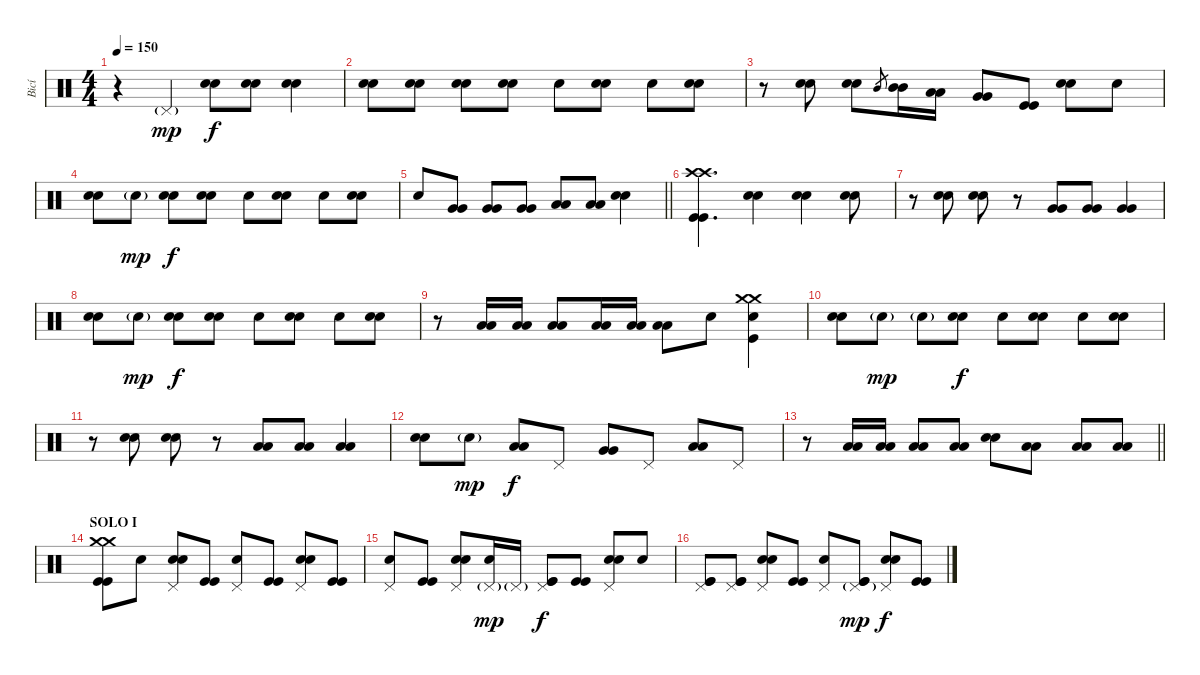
\track ("Bicí" "Bicí") {instrument percussion}
\staff {score}
\articulation defaults
\ts (4 4)
\tempo 150
\clef neutral
\ks c
r.4{dy f} "Pedal Hi-Hat (hit)"{g}.4{dy mp} ("Electric Snare (hit)" "Electric Snare (hit)").8{dy f} ("Electric Snare (hit)" "Electric Snare (hit)").8 ("Electric Snare (hit)" "Electric Snare (hit)").4 |
("Electric Snare (hit)" "Electric Snare (hit)").8 ("Electric Snare (hit)" "Electric Snare (hit)").8 ("Electric Snare (hit)" "Electric Snare (hit)").8 ("Electric Snare (hit)" "Electric Snare (hit)").8 "Snare (hit)".8 ("Electric Snare (hit)" "Electric Snare (hit)").8 "Snare (hit)".8 ("Electric Snare (hit)" "Electric Snare (hit)").8 |
r.8 ("Electric Snare (hit)" "Electric Snare (hit)").8 ("Electric Snare (hit)" "Electric Snare (hit)").8 "Mid Tom (hit)".8{gr} ("Mid Tom (hit)" "Mid Tom (hit)").16 ("Low Tom (hit)" "Low Tom (hit)").16 ("Very Low Tom (hit)" "Very Low Tom (hit)").8 ("Kick (hit)" "Kick (hit)").8 ("Electric Snare (hit)" "Electric Snare (hit)").8 "Snare (hit)".8 |
("Electric Snare (hit)" "Electric Snare (hit)").8 "Electric Snare (hit)"{g}.8{dy mp} ("Electric Snare (hit)" "Electric Snare (hit)").8{dy f} ("Electric Snare (hit)" "Electric Snare (hit)").8 "Snare (hit)".8 ("Electric Snare (hit)" "Electric Snare (hit)").8 "Snare (hit)".8 ("Electric Snare (hit)" "Electric Snare (hit)").8 |
\barLineRight lightlight "Snare (hit)".8
("Very Low Tom (hit)" "Very Low Tom (hit)").8 ("Very Low Tom (hit)" "Very Low Tom (hit)").8 ("Very Low Tom (hit)" "Very Low Tom (hit)").8 ("Low Floor Tom (hit)" "Low Floor Tom (hit)").8 ("Low Floor Tom (hit)" "Low Floor Tom (hit)").8 ("Electric Snare (hit)" "Electric Snare (hit)").4 |
\section ("" "")
("Crash high (hit)" "Crash high (hit)" "Kick (hit)" "Kick (hit)").4{d} ("Electric Snare (hit)" "Electric Snare (hit)").4 ("Electric Snare (hit)" "Electric Snare (hit)").4 ("Electric Snare (hit)" "Electric Snare (hit)").8 |
r.8 ("Electric Snare (hit)" "Electric Snare (hit)").8 ("Electric Snare (hit)" "Electric Snare (hit)").8 r.8 ("Very Low Tom (hit)" "Very Low Tom (hit)").8 ("Very Low Tom (hit)" "Very Low Tom (hit)").8 ("Very Low Tom (hit)" "Very Low Tom (hit)").4 |
("Electric Snare (hit)" "Electric Snare (hit)").8 "Electric Snare (hit)"{g}.8{dy mp} ("Electric Snare (hit)" "Electric Snare (hit)").8{dy f} ("Electric Snare (hit)" "Electric Snare (hit)").8 "Snare (hit)".8 ("Electric Snare (hit)" "Electric Snare (hit)").8 "Snare (hit)".8 ("Electric Snare (hit)" "Electric Snare (hit)").8 |
r.8 ("Low Tom (hit)" "Low Tom (hit)").16 ("Low Tom (hit)" "Low Tom (hit)").16 ("Low Tom (hit)" "Low Tom (hit)").8 ("Low Tom (hit)" "Low Tom (hit)").16 ("Low Tom (hit)" "Low Tom (hit)").16 ("Low Tom (hit)" "Low Tom (hit)").8 "Snare (hit)".8 ("Crash medium (hit)" "Crash medium (hit)" "Electric Snare (hit)" "Kick (hit)").4 |
("Electric Snare (hit)" "Electric Snare (hit)").8 "Electric Snare (hit)"{g}.8{dy mp} "Electric Snare (hit)"{g}.8 ("Electric Snare (hit)" "Electric Snare (hit)").8{dy f} "Snare (hit)".8 ("Electric Snare (hit)" "Electric Snare (hit)").8 "Snare (hit)".8 ("Electric Snare (hit)" "Electric Snare (hit)").8 |
r.8 ("Electric Snare (hit)" "Electric Snare (hit)").8 ("Electric Snare (hit)" "Electric Snare (hit)").8 r.8 ("Low Tom (hit)" "Low Tom (hit)").8 ("Low Tom (hit)" "Low Tom (hit)").8 ("Low Tom (hit)" "Low Tom (hit)").4 |
("Electric Snare (hit)" "Electric Snare (hit)").8 "Electric Snare (hit)"{g}.8{dy mp} ("Low Tom (hit)" "Low Tom (hit)").8{dy f} "Pedal Hi-Hat (hit)".8 ("Very Low Tom (hit)" "Very Low Tom (hit)").8 "Pedal Hi-Hat (hit)".8 ("Low Floor Tom (hit)" "Low Floor Tom (hit)").8 "Pedal Hi-Hat (hit)".8 |
\barLineRight lightlight
r.8 ("Low Tom (hit)" "Low Tom (hit)").16 ("Low Tom (hit)" "Low Tom (hit)").16 ("Low Tom (hit)" "Low Tom (hit)").8 ("Low Tom (hit)" "Low Tom (hit)").8 ("Electric Snare (hit)" "Electric Snare (hit)").8 ("Low Floor Tom (hit)" "Low Floor Tom (hit)").8 ("Low Floor Tom (hit)" "Low Floor Tom (hit)").8 ("Low Floor Tom (hit)" "Low Floor Tom (hit)").8 |
\section ("" "SOLO I")
("Crash medium (hit)" "Crash medium (hit)" "Kick (hit)" "Kick (hit)").8 "Snare (hit)".8 ("Pedal Hi-Hat (hit)" "Electric Snare (hit)" "Electric Snare (hit)").8 ("Kick (hit)" "Kick (hit)").8 ("Pedal Hi-Hat (hit)" "Snare (hit)").8 ("Kick (hit)" "Kick (hit)").8 ("Pedal Hi-Hat (hit)" "Electric Snare (hit)" "Electric Snare (hit)").8 ("Kick (hit)" "Kick (hit)").8 |
("Pedal Hi-Hat (hit)" "Snare (hit)").8 ("Kick (hit)" "Kick (hit)").8 ("Pedal Hi-Hat (hit)" "Electric Snare (hit)" "Electric Snare (hit)").8 ("Pedal Hi-Hat (hit)"{g} "Snare (hit)").16{dy mp} "Pedal Hi-Hat (hit)"{g}.16 ("Pedal Hi-Hat (hit)" "Kick (hit)" "Kick (hit)").8{dy f} ("Kick (hit)" "Kick (hit)").8 ("Pedal Hi-Hat (hit)" "Electric Snare (hit)" "Electric Snare (hit)").8 "Snare (hit)".8 |
("Pedal Hi-Hat (hit)" "Kick (hit)" "Kick (hit)").8 ("Pedal Hi-Hat (hit)" "Kick (hit)" "Kick (hit)").8 ("Pedal Hi-Hat (hit)" "Electric Snare (hit)" "Electric Snare (hit)").8 ("Kick (hit)" "Kick (hit)").8 ("Pedal Hi-Hat (hit)" "Snare (hit)").8 ("Pedal Hi-Hat (hit)"{g} "Kick (hit)" "Kick (hit)").8{dy mp} ("Pedal Hi-Hat (hit)" "Electric Snare (hit)" "Electric Snare (hit)").8{dy f} ("Kick (hit)" "Kick (hit)").8
